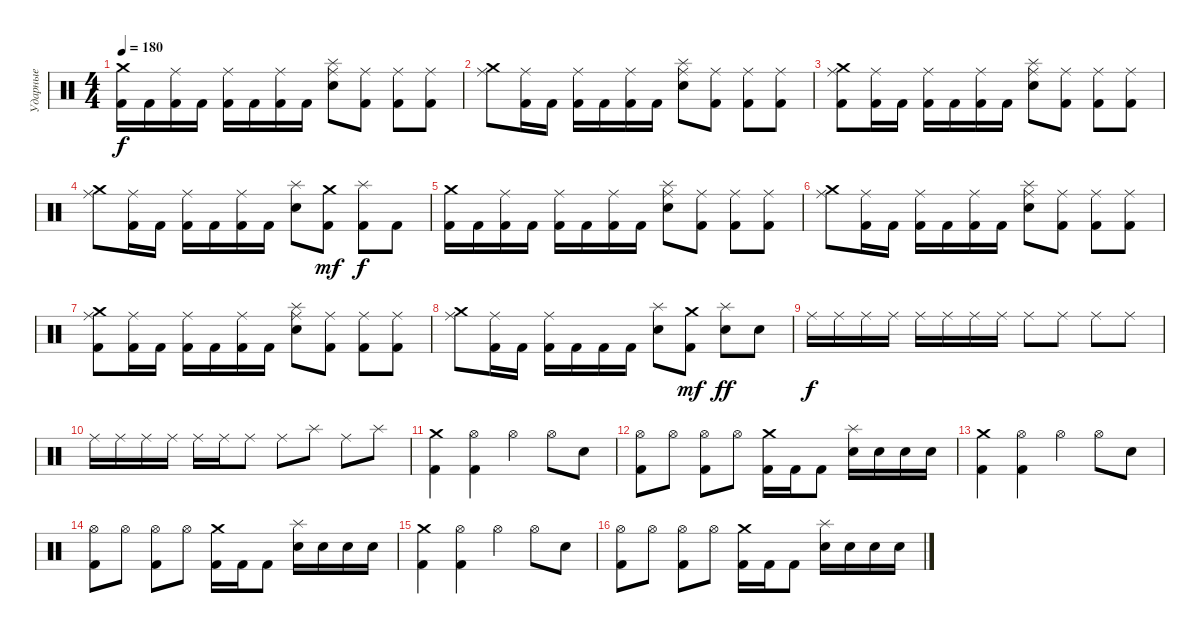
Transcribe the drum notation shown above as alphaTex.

\track ("Ударные" "Ударные") {instrument percussion bank 127}
\staff {score}
\articulation defaults
\ts (4 4)
\tempo 180
\clef neutral
\ks c
("Crash medium (hit)" "Kick (hit) 2").16{dy f} "Kick (hit) 2".16 ("Ride (middle)" "Kick (hit) 2").16 "Kick (hit) 2".16 ("Ride (middle)" "Kick (hit) 2").16 "Kick (hit) 2".16 ("Ride (middle)" "Kick (hit) 2").16 "Kick (hit) 2".16 ("Ride (middle)" "Splash (hit)" "Snare (hit) 2").8 ("Ride (middle)" "Kick (hit) 2").8 ("Ride (middle)" "Kick (hit) 2").8 ("Ride (middle)" "Kick (hit) 2").8 |
("Ride (middle)" "Crash medium (hit)").8 ("Ride (middle)" "Kick (hit) 2").16 "Kick (hit) 2".16 ("Ride (middle)" "Kick (hit) 2").16 "Kick (hit) 2".16 ("Ride (middle)" "Kick (hit) 2").16 "Kick (hit) 2".16 ("Ride (middle)" "Splash (hit)" "Snare (hit) 2").8 ("Ride (middle)" "Kick (hit) 2").8 ("Ride (middle)" "Kick (hit) 2").8 ("Ride (middle)" "Kick (hit) 2").8 |
("Ride (middle)" "Crash medium (hit)" "Kick (hit) 2").8 ("Ride (middle)" "Kick (hit) 2").16 "Kick (hit) 2".16 ("Ride (middle)" "Kick (hit) 2").16 "Kick (hit) 2".16 ("Ride (middle)" "Kick (hit) 2").16 "Kick (hit) 2".16 ("Ride (middle)" "Splash (hit)" "Snare (hit) 2").8 ("Ride (middle)" "Kick (hit) 2").8 ("Ride (middle)" "Kick (hit) 2").8 ("Ride (middle)" "Kick (hit) 2").8 |
("Ride (middle)" "Crash medium (hit)").8 ("Ride (middle)" "Kick (hit) 2").16 "Kick (hit) 2".16 ("Ride (middle)" "Kick (hit) 2").16 "Kick (hit) 2".16 ("Ride (middle)" "Kick (hit) 2").16 "Kick (hit) 2".16 ("Splash (hit)" "Snare (hit) 2").8 ("Crash medium (hit)" "Kick (hit) 2").8{dy mf} ("Splash (hit)" "Kick (hit) 2").8{dy f} "Kick (hit) 2".8 |
("Crash medium (hit)" "Kick (hit) 2").16 "Kick (hit) 2".16 ("Ride (middle)" "Kick (hit) 2").16 "Kick (hit) 2".16 ("Ride (middle)" "Kick (hit) 2").16 "Kick (hit) 2".16 ("Ride (middle)" "Kick (hit) 2").16 "Kick (hit) 2".16 ("Ride (middle)" "Splash (hit)" "Snare (hit) 2").8 ("Ride (middle)" "Kick (hit) 2").8 ("Ride (middle)" "Kick (hit) 2").8 ("Ride (middle)" "Kick (hit) 2").8 |
("Ride (middle)" "Crash medium (hit)").8 ("Ride (middle)" "Kick (hit) 2").16 "Kick (hit) 2".16 ("Ride (middle)" "Kick (hit) 2").16 "Kick (hit) 2".16 ("Ride (middle)" "Kick (hit) 2").16 "Kick (hit) 2".16 ("Ride (middle)" "Splash (hit)" "Snare (hit) 2").8 ("Ride (middle)" "Kick (hit) 2").8 ("Ride (middle)" "Kick (hit) 2").8 ("Ride (middle)" "Kick (hit) 2").8 |
("Ride (middle)" "Crash medium (hit)" "Kick (hit) 2").8 ("Ride (middle)" "Kick (hit) 2").16 "Kick (hit) 2".16 ("Ride (middle)" "Kick (hit) 2").16 "Kick (hit) 2".16 ("Ride (middle)" "Kick (hit) 2").16 "Kick (hit) 2".16 ("Ride (middle)" "Splash (hit)" "Snare (hit) 2").8 ("Ride (middle)" "Kick (hit) 2").8 ("Ride (middle)" "Kick (hit) 2").8 ("Ride (middle)" "Kick (hit) 2").8 |
("Ride (middle)" "Crash medium (hit)").8 ("Ride (middle)" "Kick (hit) 2").16 "Kick (hit) 2".16 ("Ride (middle)" "Kick (hit) 2").16 "Kick (hit) 2".16 "Kick (hit) 2".16 "Kick (hit) 2".16 ("Splash (hit)" "Snare (hit) 2").8 ("Crash medium (hit)" "Kick (hit) 2").8{dy mf} ("Splash (hit)" "Snare (hit) 2").8{dy ff} "Snare (hit) 2".8 |
"Ride (middle)".16{dy f} "Ride (middle)".16 "Ride (middle)".16 "Ride (middle)".16 "Ride (middle)".16 "Ride (middle)".16 "Ride (middle)".16 "Ride (middle)".16 "Ride (middle)".8 "Ride (middle)".8 "Ride (middle)".8 "Ride (middle)".8 |
"Ride (middle)".16 "Ride (middle)".16 "Ride (middle)".16 "Ride (middle)".16 "Ride (middle)".16 "Ride (middle)".16 "Ride (middle)".8 "Ride (middle)".8 "Splash (hit)".8 "Ride (middle)".8 "Splash (hit)".8 |
("Crash medium (hit)" "Kick (hit) 2").4 ("Hi-Hat (open)" "Kick (hit) 2").4 "Hi-Hat (open)".4 "Hi-Hat (open)".8 "Snare (hit) 2".8 |
("Hi-Hat (open)" "Kick (hit) 2").8 "Hi-Hat (open)".8 ("Hi-Hat (open)" "Kick (hit) 2").8 "Hi-Hat (open)".8 ("Crash medium (hit)" "Kick (hit) 2").16 "Kick (hit) 2".16 "Kick (hit) 2".8 ("Splash (hit)" "Snare (hit) 2").16 "Snare (hit) 2".16 "Snare (hit) 2".16 "Snare (hit) 2".16 |
("Crash medium (hit)" "Kick (hit) 2").4 ("Hi-Hat (open)" "Kick (hit) 2").4 "Hi-Hat (open)".4 "Hi-Hat (open)".8 "Snare (hit) 2".8 |
("Hi-Hat (open)" "Kick (hit) 2").8 "Hi-Hat (open)".8 ("Hi-Hat (open)" "Kick (hit) 2").8 "Hi-Hat (open)".8 ("Crash medium (hit)" "Kick (hit) 2").16 "Kick (hit) 2".16 "Kick (hit) 2".8 ("Splash (hit)" "Snare (hit) 2").16 "Snare (hit) 2".16 "Snare (hit) 2".16 "Snare (hit) 2".16 |
("Crash medium (hit)" "Kick (hit) 2").4 ("Hi-Hat (open)" "Kick (hit) 2").4 "Hi-Hat (open)".4 "Hi-Hat (open)".8 "Snare (hit) 2".8 |
("Hi-Hat (open)" "Kick (hit) 2").8 "Hi-Hat (open)".8 ("Hi-Hat (open)" "Kick (hit) 2").8 "Hi-Hat (open)".8 ("Crash medium (hit)" "Kick (hit) 2").16 "Kick (hit) 2".16 "Kick (hit) 2".8 ("Splash (hit)" "Snare (hit) 2").16 "Snare (hit) 2".16 "Snare (hit) 2".16 "Snare (hit) 2".16
